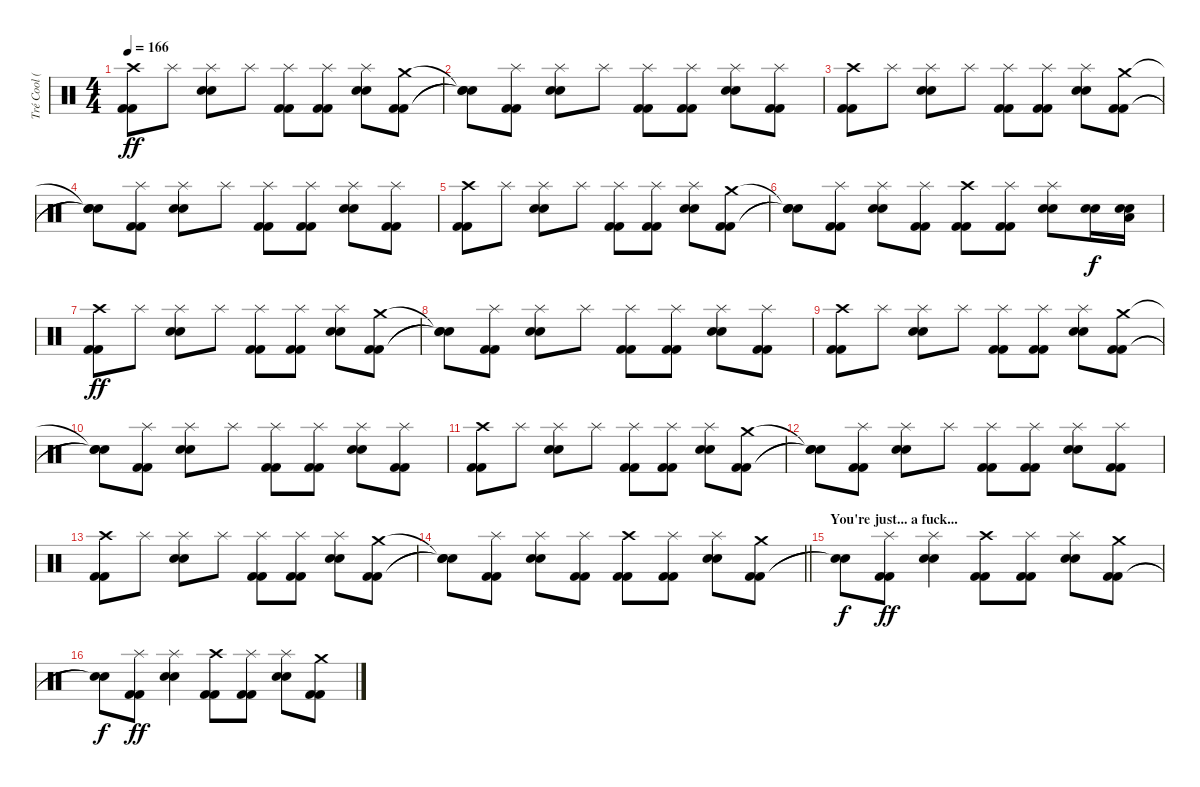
\track ("Tré Cool (Drums)" "Tré Cool (") {instrument percussion}
\staff {score}
\articulation defaults
\ts (4 4)
\tempo 166
\clef neutral
\ks c
("Kick (hit) 2" "Kick (hit) 2" "Crash high (hit)").8{dy ff} "Splash (hit)".8 ("Snare (hit) 2" "Snare (hit) 2" "Splash (hit)").8 "Splash (hit)".8 ("Kick (hit) 2" "Kick (hit) 2" "Splash (hit)").8 ("Kick (hit) 2" "Kick (hit) 2" "Splash (hit)").8 ("Snare (hit) 2" "Snare (hit) 2" "Splash (hit)").8 ("Kick (hit) 2" "Kick (hit) 2" "Crash medium (hit)").8 |
("Snare (hit)"{t} "Snare (hit)"{t} "Snare (hit)"{t}).8 ("Kick (hit) 2" "Kick (hit) 2" "Splash (hit)").8 ("Snare (hit) 2" "Snare (hit) 2" "Splash (hit)").8 "Splash (hit)".8 ("Kick (hit) 2" "Kick (hit) 2" "Splash (hit)").8 ("Kick (hit) 2" "Kick (hit) 2" "Splash (hit)").8 ("Snare (hit) 2" "Snare (hit) 2" "Splash (hit)").8 ("Kick (hit) 2" "Kick (hit) 2" "Splash (hit)").8 |
("Kick (hit) 2" "Kick (hit) 2" "Crash high (hit)").8 "Splash (hit)".8 ("Snare (hit) 2" "Snare (hit) 2" "Splash (hit)").8 "Splash (hit)".8 ("Kick (hit) 2" "Kick (hit) 2" "Splash (hit)").8 ("Kick (hit) 2" "Kick (hit) 2" "Splash (hit)").8 ("Snare (hit) 2" "Snare (hit) 2" "Splash (hit)").8 ("Kick (hit) 2" "Kick (hit) 2" "Crash medium (hit)").8 |
("Snare (hit)"{t} "Snare (hit)"{t} "Snare (hit)"{t}).8 ("Kick (hit) 2" "Kick (hit) 2" "Splash (hit)").8 ("Snare (hit) 2" "Snare (hit) 2" "Splash (hit)").8 "Splash (hit)".8 ("Kick (hit) 2" "Kick (hit) 2" "Splash (hit)").8 ("Kick (hit) 2" "Kick (hit) 2" "Splash (hit)").8 ("Snare (hit) 2" "Snare (hit) 2" "Splash (hit)").8 ("Kick (hit) 2" "Kick (hit) 2" "Splash (hit)").8 |
("Kick (hit) 2" "Kick (hit) 2" "Crash high (hit)").8 "Splash (hit)".8 ("Snare (hit) 2" "Snare (hit) 2" "Splash (hit)").8 "Splash (hit)".8 ("Kick (hit) 2" "Kick (hit) 2" "Splash (hit)").8 ("Kick (hit) 2" "Kick (hit) 2" "Splash (hit)").8 ("Snare (hit) 2" "Snare (hit) 2" "Splash (hit)").8 ("Kick (hit) 2" "Kick (hit) 2" "Crash medium (hit)").8 |
("Snare (hit)"{t} "Snare (hit)"{t} "Snare (hit)"{t}).8 ("Kick (hit) 2" "Kick (hit) 2" "Splash (hit)").8 ("Snare (hit) 2" "Snare (hit) 2" "Splash (hit)").8 ("Kick (hit) 2" "Kick (hit) 2" "Splash (hit)").8 ("Kick (hit) 2" "Kick (hit) 2" "Crash high (hit)").8 ("Kick (hit) 2" "Kick (hit) 2" "Splash (hit)").8 ("Snare (hit) 2" "Snare (hit) 2" "Splash (hit)").8 ("Snare (hit) 2" "Snare (hit) 2").16{dy f} ("Snare (hit) 2" "Snare (hit) 2" "Low Floor Tom (hit)").16 |
("Kick (hit) 2" "Kick (hit) 2" "Crash high (hit)").8{dy ff} "Splash (hit)".8 ("Snare (hit) 2" "Snare (hit) 2" "Splash (hit)").8 "Splash (hit)".8 ("Kick (hit) 2" "Kick (hit) 2" "Splash (hit)").8 ("Kick (hit) 2" "Kick (hit) 2" "Splash (hit)").8 ("Snare (hit) 2" "Snare (hit) 2" "Splash (hit)").8 ("Kick (hit) 2" "Kick (hit) 2" "Crash medium (hit)").8 |
("Snare (hit)"{t} "Snare (hit)"{t} "Snare (hit)"{t}).8 ("Kick (hit) 2" "Kick (hit) 2" "Splash (hit)").8 ("Snare (hit) 2" "Snare (hit) 2" "Splash (hit)").8 "Splash (hit)".8 ("Kick (hit) 2" "Kick (hit) 2" "Splash (hit)").8 ("Kick (hit) 2" "Kick (hit) 2" "Splash (hit)").8 ("Snare (hit) 2" "Snare (hit) 2" "Splash (hit)").8 ("Kick (hit) 2" "Kick (hit) 2" "Splash (hit)").8 |
("Kick (hit) 2" "Kick (hit) 2" "Crash high (hit)").8 "Splash (hit)".8 ("Snare (hit) 2" "Snare (hit) 2" "Splash (hit)").8 "Splash (hit)".8 ("Kick (hit) 2" "Kick (hit) 2" "Splash (hit)").8 ("Kick (hit) 2" "Kick (hit) 2" "Splash (hit)").8 ("Snare (hit) 2" "Snare (hit) 2" "Splash (hit)").8 ("Kick (hit) 2" "Kick (hit) 2" "Crash medium (hit)").8 |
("Snare (hit)"{t} "Snare (hit)"{t} "Snare (hit)"{t}).8 ("Kick (hit) 2" "Kick (hit) 2" "Splash (hit)").8 ("Snare (hit) 2" "Snare (hit) 2" "Splash (hit)").8 "Splash (hit)".8 ("Kick (hit) 2" "Kick (hit) 2" "Splash (hit)").8 ("Kick (hit) 2" "Kick (hit) 2" "Splash (hit)").8 ("Snare (hit) 2" "Snare (hit) 2" "Splash (hit)").8 ("Kick (hit) 2" "Kick (hit) 2" "Splash (hit)").8 |
("Kick (hit) 2" "Kick (hit) 2" "Crash high (hit)").8 "Splash (hit)".8 ("Snare (hit) 2" "Snare (hit) 2" "Splash (hit)").8 "Splash (hit)".8 ("Kick (hit) 2" "Kick (hit) 2" "Splash (hit)").8 ("Kick (hit) 2" "Kick (hit) 2" "Splash (hit)").8 ("Snare (hit) 2" "Snare (hit) 2" "Splash (hit)").8 ("Kick (hit) 2" "Kick (hit) 2" "Crash medium (hit)").8 |
("Snare (hit)"{t} "Snare (hit)"{t} "Snare (hit)"{t}).8 ("Kick (hit) 2" "Kick (hit) 2" "Splash (hit)").8 ("Snare (hit) 2" "Snare (hit) 2" "Splash (hit)").8 "Splash (hit)".8 ("Kick (hit) 2" "Kick (hit) 2" "Splash (hit)").8 ("Kick (hit) 2" "Kick (hit) 2" "Splash (hit)").8 ("Snare (hit) 2" "Snare (hit) 2" "Splash (hit)").8 ("Kick (hit) 2" "Kick (hit) 2" "Splash (hit)").8 |
("Kick (hit) 2" "Kick (hit) 2" "Crash high (hit)").8 "Splash (hit)".8 ("Snare (hit) 2" "Snare (hit) 2" "Splash (hit)").8 "Splash (hit)".8 ("Kick (hit) 2" "Kick (hit) 2" "Splash (hit)").8 ("Kick (hit) 2" "Kick (hit) 2" "Splash (hit)").8 ("Snare (hit) 2" "Snare (hit) 2" "Splash (hit)").8 ("Kick (hit) 2" "Kick (hit) 2" "Crash medium (hit)").8 |
\barLineRight lightlight
("Snare (hit)"{t} "Snare (hit)"{t} "Snare (hit)"{t}).8 ("Kick (hit) 2" "Kick (hit) 2" "Splash (hit)").8 ("Snare (hit) 2" "Snare (hit) 2" "Splash (hit)").8 ("Kick (hit) 2" "Kick (hit) 2" "Splash (hit)").8 ("Kick (hit) 2" "Kick (hit) 2" "Crash high (hit)").8 ("Kick (hit) 2" "Kick (hit) 2" "Splash (hit)").8 ("Snare (hit) 2" "Snare (hit) 2" "Splash (hit)").8 ("Kick (hit) 2" "Kick (hit) 2" "Crash medium (hit)").8 |
\section ("" "You're just... a fuck...")
("Snare (hit)"{t} "Snare (hit)"{t}).8{dy f} ("Kick (hit) 2" "Kick (hit) 2" "Splash (hit)").8{dy ff} ("Snare (hit) 2" "Snare (hit) 2" "Splash (hit)").4 ("Kick (hit) 2" "Kick (hit) 2" "Crash high (hit)").8 ("Kick (hit) 2" "Kick (hit) 2" "Splash (hit)").8 ("Snare (hit) 2" "Snare (hit) 2" "Splash (hit)").8 ("Kick (hit) 2" "Kick (hit) 2" "Crash medium (hit)").8 |
("Snare (hit)"{t} "Snare (hit)"{t}).8{dy f} ("Kick (hit) 2" "Kick (hit) 2" "Splash (hit)").8{dy ff} ("Snare (hit) 2" "Snare (hit) 2" "Splash (hit)").4 ("Kick (hit) 2" "Kick (hit) 2" "Crash high (hit)").8 ("Kick (hit) 2" "Kick (hit) 2" "Splash (hit)").8 ("Snare (hit) 2" "Snare (hit) 2" "Splash (hit)").8 ("Kick (hit) 2" "Kick (hit) 2" "Crash medium (hit)").8
